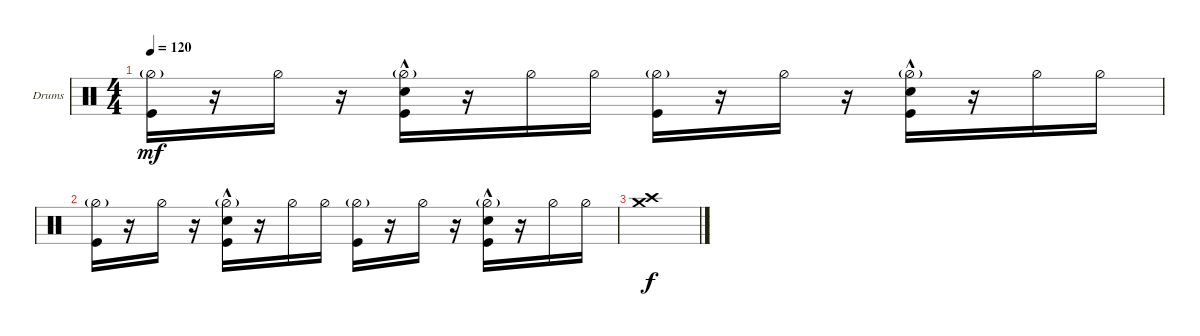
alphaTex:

\defaultSystemsLayout 4
\bracketExtendMode groupsimilarinstruments
\firstSystemTrackNameOrientation horizontal
\otherSystemsTrackNameOrientation horizontal
\track ("Drumkit" "Drums") {instrument percussion}
\staff {score}
\articulation defaults
\ts (4 4)
\tempo 120
\clef neutral
\ks c
("Kick (hit)" "Hi-Hat (half)"{g}).16{dy mf} r.16 "Hi-Hat (half)".16 r.16 ("Kick (hit)" "Snare (hit) 2"{hac} "Hi-Hat (half)"{g}).16 r.16 "Hi-Hat (half)".16 "Hi-Hat (half)".16 ("Kick (hit)" "Hi-Hat (half)"{g}).16 r.16 "Hi-Hat (half)".16 r.16 ("Kick (hit)" "Snare (hit) 2"{hac} "Hi-Hat (half)"{g}).16 r.16 "Hi-Hat (half)".16 "Hi-Hat (half)".16 |
("Kick (hit)" "Hi-Hat (half)"{g}).16 r.16 "Hi-Hat (half)".16 r.16 ("Kick (hit)" "Snare (hit) 2"{hac} "Hi-Hat (half)"{g}).16 r.16 "Hi-Hat (half)".16 "Hi-Hat (half)".16 ("Kick (hit)" "Hi-Hat (half)"{g}).16 r.16 "Hi-Hat (half)".16 r.16 ("Kick (hit)" "Snare (hit) 2"{hac} "Hi-Hat (half)"{g}).16 r.16 "Hi-Hat (half)".16 "Hi-Hat (half)".16 |
("Crash medium (hit)" "Crash high (hit)").1{dy f}
